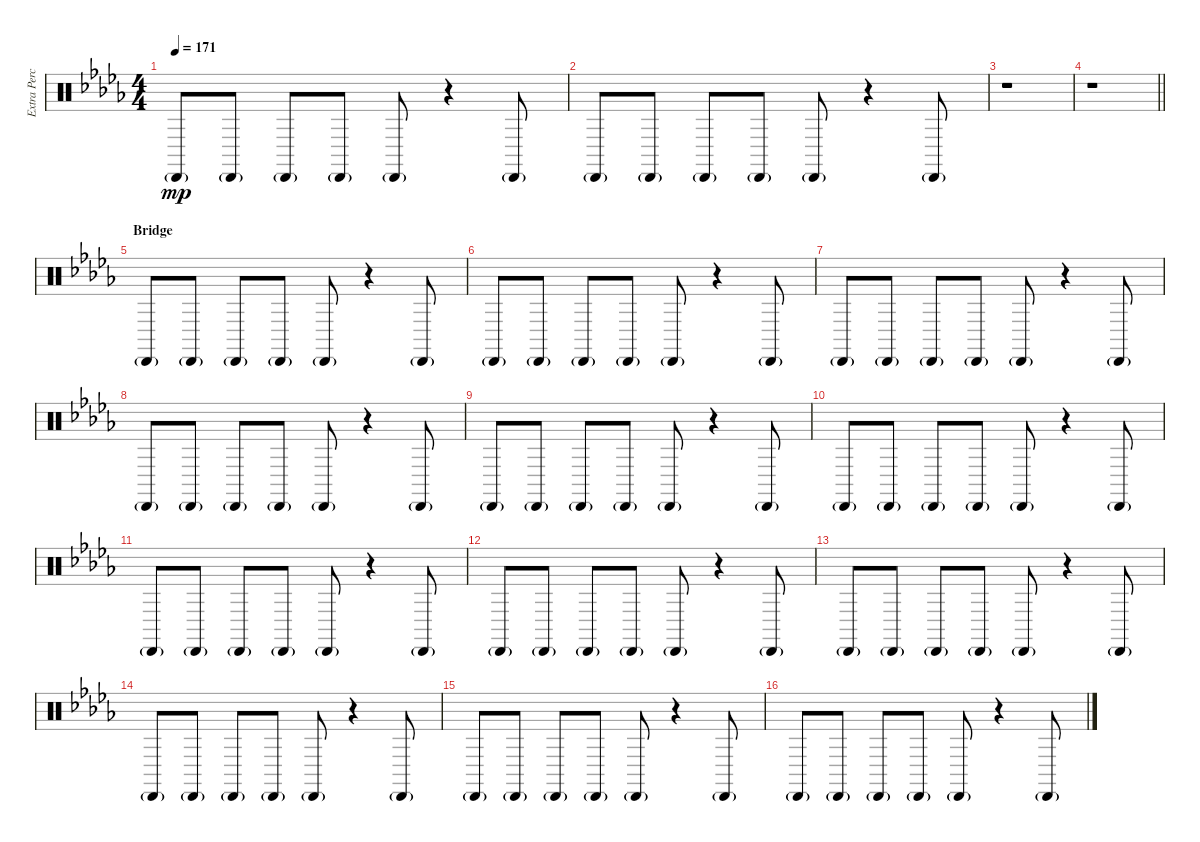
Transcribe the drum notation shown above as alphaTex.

\track ("Extra Percussion" "Extra Perc") {instrument percussion}
\staff {score}
\articulation defaults
\ts (4 4)
\tempo 171
\clef neutral
\ks db "Cabasa (hit)"{g}.8{dy mp} "Cabasa (hit)"{g}.8 "Cabasa (hit)"{g}.8 "Cabasa (hit)"{g}.8 "Cabasa (hit)"{g}.8
r.4 "Cabasa (hit)"{g}.8 |
"Cabasa (hit)"{g}.8 "Cabasa (hit)"{g}.8 "Cabasa (hit)"{g}.8 "Cabasa (hit)"{g}.8 "Cabasa (hit)"{g}.8 r.4 "Cabasa (hit)"{g}.8 |
r.1 |
\barLineRight lightlight
r.1 |
\section ("" "Bridge")
"Cabasa (hit)"{g}.8 "Cabasa (hit)"{g}.8 "Cabasa (hit)"{g}.8 "Cabasa (hit)"{g}.8 "Cabasa (hit)"{g}.8 r.4 "Cabasa (hit)"{g}.8 |
"Cabasa (hit)"{g}.8 "Cabasa (hit)"{g}.8 "Cabasa (hit)"{g}.8 "Cabasa (hit)"{g}.8 "Cabasa (hit)"{g}.8 r.4 "Cabasa (hit)"{g}.8 |
"Cabasa (hit)"{g}.8 "Cabasa (hit)"{g}.8 "Cabasa (hit)"{g}.8 "Cabasa (hit)"{g}.8 "Cabasa (hit)"{g}.8 r.4 "Cabasa (hit)"{g}.8 |
"Cabasa (hit)"{g}.8 "Cabasa (hit)"{g}.8 "Cabasa (hit)"{g}.8 "Cabasa (hit)"{g}.8 "Cabasa (hit)"{g}.8 r.4 "Cabasa (hit)"{g}.8 |
"Cabasa (hit)"{g}.8 "Cabasa (hit)"{g}.8 "Cabasa (hit)"{g}.8 "Cabasa (hit)"{g}.8 "Cabasa (hit)"{g}.8 r.4 "Cabasa (hit)"{g}.8 |
"Cabasa (hit)"{g}.8 "Cabasa (hit)"{g}.8 "Cabasa (hit)"{g}.8 "Cabasa (hit)"{g}.8 "Cabasa (hit)"{g}.8 r.4 "Cabasa (hit)"{g}.8 |
"Cabasa (hit)"{g}.8 "Cabasa (hit)"{g}.8 "Cabasa (hit)"{g}.8 "Cabasa (hit)"{g}.8 "Cabasa (hit)"{g}.8 r.4 "Cabasa (hit)"{g}.8 |
"Cabasa (hit)"{g}.8 "Cabasa (hit)"{g}.8 "Cabasa (hit)"{g}.8 "Cabasa (hit)"{g}.8 "Cabasa (hit)"{g}.8 r.4 "Cabasa (hit)"{g}.8 |
"Cabasa (hit)"{g}.8 "Cabasa (hit)"{g}.8 "Cabasa (hit)"{g}.8 "Cabasa (hit)"{g}.8 "Cabasa (hit)"{g}.8 r.4 "Cabasa (hit)"{g}.8 |
"Cabasa (hit)"{g}.8 "Cabasa (hit)"{g}.8 "Cabasa (hit)"{g}.8 "Cabasa (hit)"{g}.8 "Cabasa (hit)"{g}.8 r.4 "Cabasa (hit)"{g}.8 |
"Cabasa (hit)"{g}.8 "Cabasa (hit)"{g}.8 "Cabasa (hit)"{g}.8 "Cabasa (hit)"{g}.8 "Cabasa (hit)"{g}.8 r.4 "Cabasa (hit)"{g}.8 |
"Cabasa (hit)"{g}.8 "Cabasa (hit)"{g}.8 "Cabasa (hit)"{g}.8 "Cabasa (hit)"{g}.8 "Cabasa (hit)"{g}.8 r.4 "Cabasa (hit)"{g}.8
